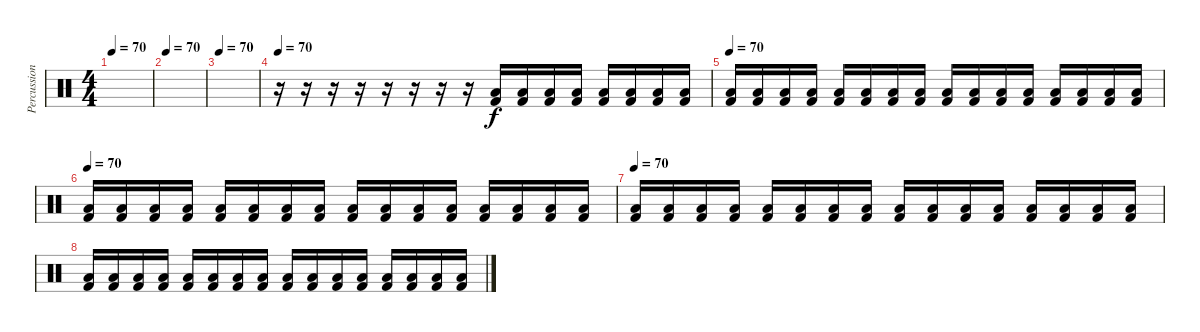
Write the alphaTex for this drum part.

\track ("Percussion" "Percussion") {instrument percussion}
\staff {score}
\articulation defaults
\ts (4 4)
\tempo 70
\clef neutral
\ks c
|
\tempo 70
|
\tempo 70
|
\tempo 70
r.16 r.16 r.16 r.16 r.16 r.16 r.16 r.16 ("Low Floor Tom (hit)" "Kick (hit) 2").16 ("Low Floor Tom (hit)" "Kick (hit) 2").16 ("Low Floor Tom (hit)" "Kick (hit) 2").16 ("Low Floor Tom (hit)" "Kick (hit) 2").16 ("Low Floor Tom (hit)" "Kick (hit) 2").16 ("Low Floor Tom (hit)" "Kick (hit) 2").16 ("Low Floor Tom (hit)" "Kick (hit) 2").16 ("Low Floor Tom (hit)" "Kick (hit) 2").16 |
\tempo 70
("Low Floor Tom (hit)" "Kick (hit) 2").16 ("Low Floor Tom (hit)" "Kick (hit) 2").16 ("Low Floor Tom (hit)" "Kick (hit) 2").16 ("Low Floor Tom (hit)" "Kick (hit) 2").16 ("Low Floor Tom (hit)" "Kick (hit) 2").16 ("Low Floor Tom (hit)" "Kick (hit) 2").16 ("Low Floor Tom (hit)" "Kick (hit) 2").16 ("Low Floor Tom (hit)" "Kick (hit) 2").16 ("Low Floor Tom (hit)" "Kick (hit) 2").16 ("Low Floor Tom (hit)" "Kick (hit) 2").16 ("Low Floor Tom (hit)" "Kick (hit) 2").16 ("Low Floor Tom (hit)" "Kick (hit) 2").16 ("Low Floor Tom (hit)" "Kick (hit) 2").16 ("Low Floor Tom (hit)" "Kick (hit) 2").16 ("Low Floor Tom (hit)" "Kick (hit) 2").16 ("Low Floor Tom (hit)" "Kick (hit) 2").16 |
\tempo 70
("Low Floor Tom (hit)" "Kick (hit) 2").16 ("Low Floor Tom (hit)" "Kick (hit) 2").16 ("Low Floor Tom (hit)" "Kick (hit) 2").16 ("Low Floor Tom (hit)" "Kick (hit) 2").16 ("Low Floor Tom (hit)" "Kick (hit) 2").16 ("Low Floor Tom (hit)" "Kick (hit) 2").16 ("Low Floor Tom (hit)" "Kick (hit) 2").16 ("Low Floor Tom (hit)" "Kick (hit) 2").16 ("Low Floor Tom (hit)" "Kick (hit) 2").16 ("Low Floor Tom (hit)" "Kick (hit) 2").16 ("Low Floor Tom (hit)" "Kick (hit) 2").16 ("Low Floor Tom (hit)" "Kick (hit) 2").16 ("Low Floor Tom (hit)" "Kick (hit) 2").16 ("Low Floor Tom (hit)" "Kick (hit) 2").16 ("Low Floor Tom (hit)" "Kick (hit) 2").16 ("Low Floor Tom (hit)" "Kick (hit) 2").16 |
\tempo 70
("Low Floor Tom (hit)" "Kick (hit) 2").16 ("Low Floor Tom (hit)" "Kick (hit) 2").16 ("Low Floor Tom (hit)" "Kick (hit) 2").16 ("Low Floor Tom (hit)" "Kick (hit) 2").16 ("Low Floor Tom (hit)" "Kick (hit) 2").16 ("Low Floor Tom (hit)" "Kick (hit) 2").16 ("Low Floor Tom (hit)" "Kick (hit) 2").16 ("Low Floor Tom (hit)" "Kick (hit) 2").16 ("Low Floor Tom (hit)" "Kick (hit) 2").16 ("Low Floor Tom (hit)" "Kick (hit) 2").16 ("Low Floor Tom (hit)" "Kick (hit) 2").16 ("Low Floor Tom (hit)" "Kick (hit) 2").16 ("Low Floor Tom (hit)" "Kick (hit) 2").16 ("Low Floor Tom (hit)" "Kick (hit) 2").16 ("Low Floor Tom (hit)" "Kick (hit) 2").16 ("Low Floor Tom (hit)" "Kick (hit) 2").16 |
("Low Floor Tom (hit)" "Kick (hit) 2").16 ("Low Floor Tom (hit)" "Kick (hit) 2").16 ("Low Floor Tom (hit)" "Kick (hit) 2").16 ("Low Floor Tom (hit)" "Kick (hit) 2").16 ("Low Floor Tom (hit)" "Kick (hit) 2").16 ("Low Floor Tom (hit)" "Kick (hit) 2").16 ("Low Floor Tom (hit)" "Kick (hit) 2").16 ("Low Floor Tom (hit)" "Kick (hit) 2").16 ("Low Floor Tom (hit)" "Kick (hit) 2").16 ("Low Floor Tom (hit)" "Kick (hit) 2").16 ("Low Floor Tom (hit)" "Kick (hit) 2").16 ("Low Floor Tom (hit)" "Kick (hit) 2").16 ("Low Floor Tom (hit)" "Kick (hit) 2").16 ("Low Floor Tom (hit)" "Kick (hit) 2").16 ("Low Floor Tom (hit)" "Kick (hit) 2").16 ("Low Floor Tom (hit)" "Kick (hit) 2").16
